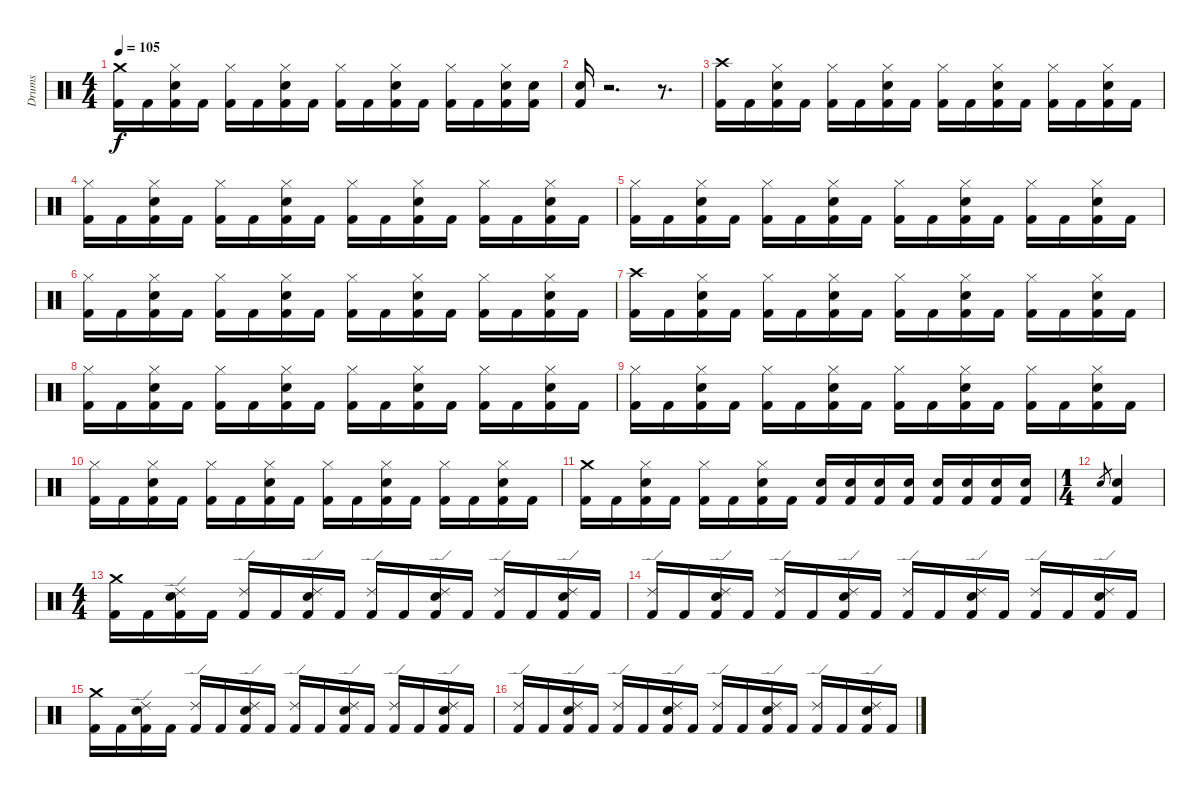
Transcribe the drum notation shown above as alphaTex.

\track ("Drums" "Drums") {instrument percussion}
\staff {score}
\articulation defaults
\ts (4 4)
\tempo 105
\clef neutral
\ks c
("Crash medium (hit)" "Kick (hit) 2").16{dy f} "Kick (hit) 2".16 ("Hi-Hat (closed)" "Electric Snare (hit)" "Kick (hit) 2").16 "Kick (hit) 2".16 ("Hi-Hat (closed)" "Kick (hit) 2").16 "Kick (hit) 2".16 ("Hi-Hat (closed)" "Electric Snare (hit)" "Kick (hit) 2").16 "Kick (hit) 2".16 ("Hi-Hat (closed)" "Kick (hit) 2").16 "Kick (hit) 2".16 ("Hi-Hat (closed)" "Electric Snare (hit)" "Kick (hit) 2").16 "Kick (hit) 2".16 ("Hi-Hat (closed)" "Kick (hit) 2").16 "Kick (hit) 2".16 ("Hi-Hat (closed)" "Electric Snare (hit)" "Kick (hit) 2").16 ("Electric Snare (hit)" "Kick (hit) 2").16 |
("Electric Snare (hit)" "Kick (hit) 2").16 r.2{d} r.8{d} |
("Crash high (hit)" "Kick (hit) 2").16 "Kick (hit) 2".16 ("Hi-Hat (closed)" "Electric Snare (hit)" "Kick (hit) 2").16 "Kick (hit) 2".16 ("Hi-Hat (closed)" "Kick (hit) 2").16 "Kick (hit) 2".16 ("Hi-Hat (closed)" "Electric Snare (hit)" "Kick (hit) 2").16 "Kick (hit) 2".16 ("Hi-Hat (closed)" "Kick (hit) 2").16 "Kick (hit) 2".16 ("Hi-Hat (closed)" "Electric Snare (hit)" "Kick (hit) 2").16 "Kick (hit) 2".16 ("Hi-Hat (closed)" "Kick (hit) 2").16 "Kick (hit) 2".16 ("Hi-Hat (closed)" "Electric Snare (hit)" "Kick (hit) 2").16 "Kick (hit) 2".16 |
("Hi-Hat (closed)" "Kick (hit) 2").16 "Kick (hit) 2".16 ("Hi-Hat (closed)" "Electric Snare (hit)" "Kick (hit) 2").16 "Kick (hit) 2".16 ("Hi-Hat (closed)" "Kick (hit) 2").16 "Kick (hit) 2".16 ("Hi-Hat (closed)" "Electric Snare (hit)" "Kick (hit) 2").16 "Kick (hit) 2".16 ("Hi-Hat (closed)" "Kick (hit) 2").16 "Kick (hit) 2".16 ("Hi-Hat (closed)" "Electric Snare (hit)" "Kick (hit) 2").16 "Kick (hit) 2".16 ("Hi-Hat (closed)" "Kick (hit) 2").16 "Kick (hit) 2".16 ("Hi-Hat (closed)" "Electric Snare (hit)" "Kick (hit) 2").16 "Kick (hit) 2".16 |
("Hi-Hat (closed)" "Kick (hit) 2").16 "Kick (hit) 2".16 ("Hi-Hat (closed)" "Electric Snare (hit)" "Kick (hit) 2").16 "Kick (hit) 2".16 ("Hi-Hat (closed)" "Kick (hit) 2").16 "Kick (hit) 2".16 ("Hi-Hat (closed)" "Electric Snare (hit)" "Kick (hit) 2").16 "Kick (hit) 2".16 ("Hi-Hat (closed)" "Kick (hit) 2").16 "Kick (hit) 2".16 ("Hi-Hat (closed)" "Electric Snare (hit)" "Kick (hit) 2").16 "Kick (hit) 2".16 ("Hi-Hat (closed)" "Kick (hit) 2").16 "Kick (hit) 2".16 ("Hi-Hat (closed)" "Electric Snare (hit)" "Kick (hit) 2").16 "Kick (hit) 2".16 |
("Hi-Hat (closed)" "Kick (hit) 2").16 "Kick (hit) 2".16 ("Hi-Hat (closed)" "Electric Snare (hit)" "Kick (hit) 2").16 "Kick (hit) 2".16 ("Hi-Hat (closed)" "Kick (hit) 2").16 "Kick (hit) 2".16 ("Hi-Hat (closed)" "Electric Snare (hit)" "Kick (hit) 2").16 "Kick (hit) 2".16 ("Hi-Hat (closed)" "Kick (hit) 2").16 "Kick (hit) 2".16 ("Hi-Hat (closed)" "Electric Snare (hit)" "Kick (hit) 2").16 "Kick (hit) 2".16 ("Hi-Hat (closed)" "Kick (hit) 2").16 "Kick (hit) 2".16 ("Hi-Hat (closed)" "Electric Snare (hit)" "Kick (hit) 2").16 "Kick (hit) 2".16 |
("Crash high (hit)" "Kick (hit) 2").16 "Kick (hit) 2".16 ("Hi-Hat (closed)" "Electric Snare (hit)" "Kick (hit) 2").16 "Kick (hit) 2".16 ("Hi-Hat (closed)" "Kick (hit) 2").16 "Kick (hit) 2".16 ("Hi-Hat (closed)" "Electric Snare (hit)" "Kick (hit) 2").16 "Kick (hit) 2".16 ("Hi-Hat (closed)" "Kick (hit) 2").16 "Kick (hit) 2".16 ("Hi-Hat (closed)" "Electric Snare (hit)" "Kick (hit) 2").16 "Kick (hit) 2".16 ("Hi-Hat (closed)" "Kick (hit) 2").16 "Kick (hit) 2".16 ("Hi-Hat (closed)" "Electric Snare (hit)" "Kick (hit) 2").16 "Kick (hit) 2".16 |
("Hi-Hat (closed)" "Kick (hit) 2").16 "Kick (hit) 2".16 ("Hi-Hat (closed)" "Electric Snare (hit)" "Kick (hit) 2").16 "Kick (hit) 2".16 ("Hi-Hat (closed)" "Kick (hit) 2").16 "Kick (hit) 2".16 ("Hi-Hat (closed)" "Electric Snare (hit)" "Kick (hit) 2").16 "Kick (hit) 2".16 ("Hi-Hat (closed)" "Kick (hit) 2").16 "Kick (hit) 2".16 ("Hi-Hat (closed)" "Electric Snare (hit)" "Kick (hit) 2").16 "Kick (hit) 2".16 ("Hi-Hat (closed)" "Kick (hit) 2").16 "Kick (hit) 2".16 ("Hi-Hat (closed)" "Electric Snare (hit)" "Kick (hit) 2").16 "Kick (hit) 2".16 |
("Hi-Hat (closed)" "Kick (hit) 2").16 "Kick (hit) 2".16 ("Hi-Hat (closed)" "Electric Snare (hit)" "Kick (hit) 2").16 "Kick (hit) 2".16 ("Hi-Hat (closed)" "Kick (hit) 2").16 "Kick (hit) 2".16 ("Hi-Hat (closed)" "Electric Snare (hit)" "Kick (hit) 2").16 "Kick (hit) 2".16 ("Hi-Hat (closed)" "Kick (hit) 2").16 "Kick (hit) 2".16 ("Hi-Hat (closed)" "Electric Snare (hit)" "Kick (hit) 2").16 "Kick (hit) 2".16 ("Hi-Hat (closed)" "Kick (hit) 2").16 "Kick (hit) 2".16 ("Hi-Hat (closed)" "Electric Snare (hit)" "Kick (hit) 2").16 "Kick (hit) 2".16 |
("Hi-Hat (closed)" "Kick (hit) 2").16 "Kick (hit) 2".16 ("Hi-Hat (closed)" "Electric Snare (hit)" "Kick (hit) 2").16 "Kick (hit) 2".16 ("Hi-Hat (closed)" "Kick (hit) 2").16 "Kick (hit) 2".16 ("Hi-Hat (closed)" "Electric Snare (hit)" "Kick (hit) 2").16 "Kick (hit) 2".16 ("Hi-Hat (closed)" "Kick (hit) 2").16 "Kick (hit) 2".16 ("Hi-Hat (closed)" "Electric Snare (hit)" "Kick (hit) 2").16 "Kick (hit) 2".16 ("Hi-Hat (closed)" "Kick (hit) 2").16 "Kick (hit) 2".16 ("Hi-Hat (closed)" "Electric Snare (hit)" "Kick (hit) 2").16 "Kick (hit) 2".16 |
("Crash medium (hit)" "Kick (hit) 2").16 "Kick (hit) 2".16 ("Hi-Hat (closed)" "Electric Snare (hit)" "Kick (hit) 2").16 "Kick (hit) 2".16 ("Hi-Hat (closed)" "Kick (hit) 2").16 "Kick (hit) 2".16 ("Hi-Hat (closed)" "Electric Snare (hit)" "Kick (hit) 2").16 "Kick (hit) 2".16 ("Electric Snare (hit)" "Kick (hit) 2").16 ("Electric Snare (hit)" "Kick (hit) 2").16 ("Electric Snare (hit)" "Kick (hit) 2").16 ("Electric Snare (hit)" "Kick (hit) 2").16 ("Electric Snare (hit)" "Kick (hit) 2").16 ("Electric Snare (hit)" "Kick (hit) 2").16 ("Electric Snare (hit)" "Kick (hit) 2").16 ("Electric Snare (hit)" "Kick (hit) 2").16 |
\ts (1 4)
"Electric Snare (hit)".8{gr} ("Electric Snare (hit)" "Kick (hit) 2").4 |
\ts (4 4)
("Crash medium (hit)" "Kick (hit) 2").16 "Kick (hit) 2".16 ("Ride (edge) 2" "Electric Snare (hit)" "Kick (hit) 2").16 "Kick (hit) 2".16 ("Ride (edge) 2" "Kick (hit) 2").16 "Kick (hit) 2".16 ("Ride (edge) 2" "Electric Snare (hit)" "Kick (hit) 2").16 "Kick (hit) 2".16 ("Ride (edge) 2" "Kick (hit) 2").16 "Kick (hit) 2".16 ("Ride (edge) 2" "Electric Snare (hit)" "Kick (hit) 2").16 "Kick (hit) 2".16 ("Ride (edge) 2" "Kick (hit) 2").16 "Kick (hit) 2".16 ("Ride (edge) 2" "Electric Snare (hit)" "Kick (hit) 2").16 "Kick (hit) 2".16 |
("Ride (edge) 2" "Kick (hit) 2").16 "Kick (hit) 2".16 ("Ride (edge) 2" "Electric Snare (hit)" "Kick (hit) 2").16 "Kick (hit) 2".16 ("Ride (edge) 2" "Kick (hit) 2").16 "Kick (hit) 2".16 ("Ride (edge) 2" "Electric Snare (hit)" "Kick (hit) 2").16 "Kick (hit) 2".16 ("Ride (edge) 2" "Kick (hit) 2").16 "Kick (hit) 2".16 ("Ride (edge) 2" "Electric Snare (hit)" "Kick (hit) 2").16 "Kick (hit) 2".16 ("Ride (edge) 2" "Kick (hit) 2").16 "Kick (hit) 2".16 ("Ride (edge) 2" "Electric Snare (hit)" "Kick (hit) 2").16 "Kick (hit) 2".16 |
("Crash medium (hit)" "Kick (hit) 2").16 "Kick (hit) 2".16 ("Ride (edge) 2" "Electric Snare (hit)" "Kick (hit) 2").16 "Kick (hit) 2".16 ("Ride (edge) 2" "Kick (hit) 2").16 "Kick (hit) 2".16 ("Ride (edge) 2" "Electric Snare (hit)" "Kick (hit) 2").16 "Kick (hit) 2".16 ("Ride (edge) 2" "Kick (hit) 2").16 "Kick (hit) 2".16 ("Ride (edge) 2" "Electric Snare (hit)" "Kick (hit) 2").16 "Kick (hit) 2".16 ("Ride (edge) 2" "Kick (hit) 2").16 "Kick (hit) 2".16 ("Ride (edge) 2" "Electric Snare (hit)" "Kick (hit) 2").16 "Kick (hit) 2".16 |
("Ride (edge) 2" "Kick (hit) 2").16 "Kick (hit) 2".16 ("Ride (edge) 2" "Electric Snare (hit)" "Kick (hit) 2").16 "Kick (hit) 2".16 ("Ride (edge) 2" "Kick (hit) 2").16 "Kick (hit) 2".16 ("Ride (edge) 2" "Electric Snare (hit)" "Kick (hit) 2").16 "Kick (hit) 2".16 ("Ride (edge) 2" "Kick (hit) 2").16 "Kick (hit) 2".16 ("Ride (edge) 2" "Electric Snare (hit)" "Kick (hit) 2").16 "Kick (hit) 2".16 ("Ride (edge) 2" "Kick (hit) 2").16 "Kick (hit) 2".16 ("Ride (edge) 2" "Electric Snare (hit)" "Kick (hit) 2").16 "Kick (hit) 2".16
